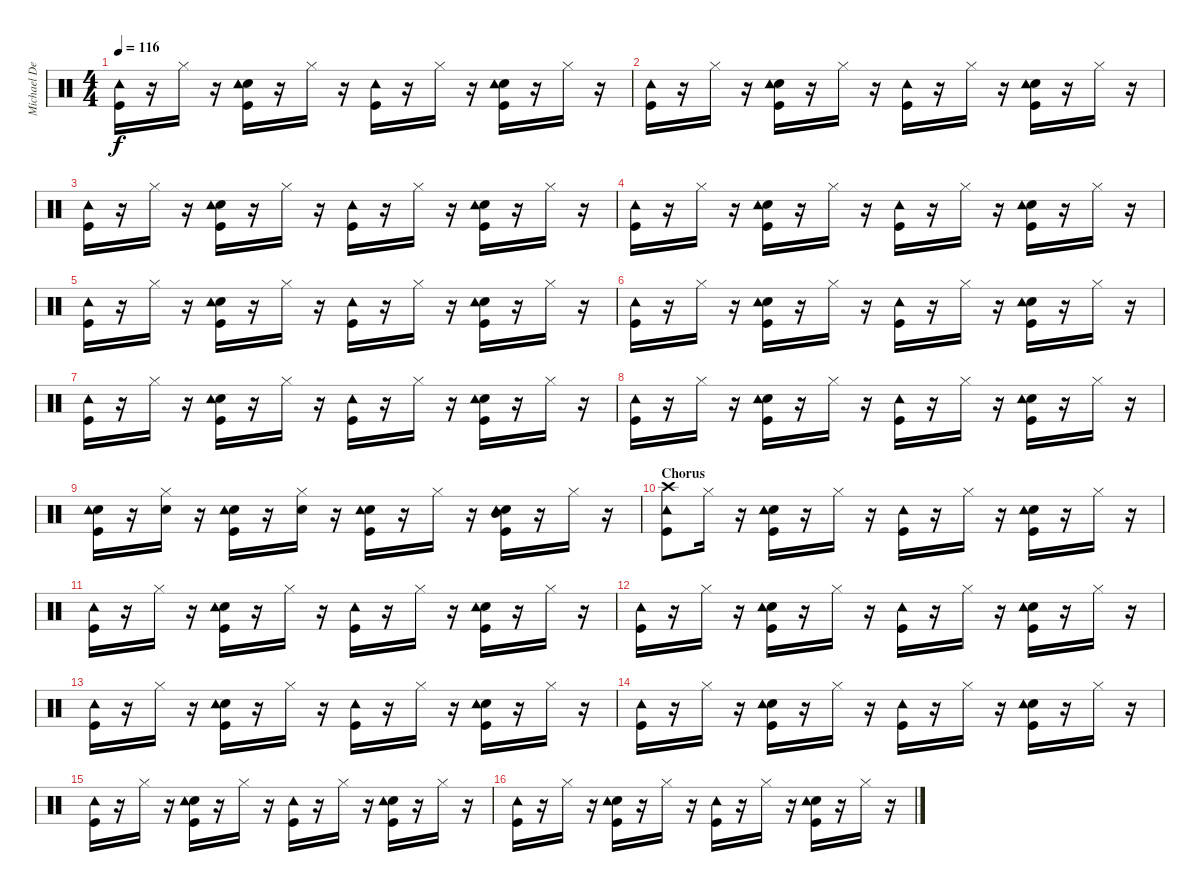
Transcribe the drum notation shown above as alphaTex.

\track ("Michael DeRosier" "Michael De") {instrument percussion}
\staff {score}
\articulation defaults
\ts (4 4)
\tempo 116
\clef neutral
\ks c
("Kick (hit)" "Tambourine (hit)").16{dy f} r.16 "Hi-Hat (closed)".16 r.16 ("Kick (hit)" "Electric Snare (hit)" "Tambourine (hit)").16 r.16 "Hi-Hat (closed)".16 r.16 ("Kick (hit)" "Tambourine (hit)").16 r.16 "Hi-Hat (closed)".16 r.16 ("Kick (hit)" "Electric Snare (hit)" "Tambourine (hit)").16 r.16 "Hi-Hat (closed)".16 r.16 |
("Kick (hit)" "Tambourine (hit)").16 r.16 "Hi-Hat (closed)".16 r.16 ("Kick (hit)" "Electric Snare (hit)" "Tambourine (hit)").16 r.16 "Hi-Hat (closed)".16 r.16 ("Kick (hit)" "Tambourine (hit)").16 r.16 "Hi-Hat (closed)".16 r.16 ("Kick (hit)" "Electric Snare (hit)" "Tambourine (hit)").16 r.16 "Hi-Hat (closed)".16 r.16 |
("Kick (hit)" "Tambourine (hit)").16 r.16 "Hi-Hat (closed)".16 r.16 ("Kick (hit)" "Electric Snare (hit)" "Tambourine (hit)").16 r.16 "Hi-Hat (closed)".16 r.16 ("Kick (hit)" "Tambourine (hit)").16 r.16 "Hi-Hat (closed)".16 r.16 ("Kick (hit)" "Electric Snare (hit)" "Tambourine (hit)").16 r.16 "Hi-Hat (closed)".16 r.16 |
("Kick (hit)" "Tambourine (hit)").16 r.16 "Hi-Hat (closed)".16 r.16 ("Kick (hit)" "Electric Snare (hit)" "Tambourine (hit)").16 r.16 "Hi-Hat (closed)".16 r.16 ("Kick (hit)" "Tambourine (hit)").16 r.16 "Hi-Hat (closed)".16 r.16 ("Kick (hit)" "Electric Snare (hit)" "Tambourine (hit)").16 r.16 "Hi-Hat (closed)".16 r.16 |
("Kick (hit)" "Tambourine (hit)").16 r.16 "Hi-Hat (closed)".16 r.16 ("Kick (hit)" "Electric Snare (hit)" "Tambourine (hit)").16 r.16 "Hi-Hat (closed)".16 r.16 ("Kick (hit)" "Tambourine (hit)").16 r.16 "Hi-Hat (closed)".16 r.16 ("Kick (hit)" "Electric Snare (hit)" "Tambourine (hit)").16 r.16 "Hi-Hat (closed)".16 r.16 |
("Kick (hit)" "Tambourine (hit)").16 r.16 "Hi-Hat (closed)".16 r.16 ("Kick (hit)" "Electric Snare (hit)" "Tambourine (hit)").16 r.16 "Hi-Hat (closed)".16 r.16 ("Kick (hit)" "Tambourine (hit)").16 r.16 "Hi-Hat (closed)".16 r.16 ("Kick (hit)" "Electric Snare (hit)" "Tambourine (hit)").16 r.16 "Hi-Hat (closed)".16 r.16 |
("Kick (hit)" "Tambourine (hit)").16 r.16 "Hi-Hat (closed)".16 r.16 ("Kick (hit)" "Electric Snare (hit)" "Tambourine (hit)").16 r.16 "Hi-Hat (closed)".16 r.16 ("Kick (hit)" "Tambourine (hit)").16 r.16 "Hi-Hat (closed)".16 r.16 ("Kick (hit)" "Electric Snare (hit)" "Tambourine (hit)").16 r.16 "Hi-Hat (closed)".16 r.16 |
("Kick (hit)" "Tambourine (hit)").16 r.16 "Hi-Hat (closed)".16 r.16 ("Kick (hit)" "Electric Snare (hit)" "Tambourine (hit)").16 r.16 "Hi-Hat (closed)".16 r.16 ("Kick (hit)" "Tambourine (hit)").16 r.16 "Hi-Hat (closed)".16 r.16 ("Kick (hit)" "Electric Snare (hit)" "Tambourine (hit)").16 r.16 "Hi-Hat (closed)".16 r.16 |
("Kick (hit)" "Electric Snare (hit)" "Tambourine (hit)").16 r.16 ("Electric Snare (hit)" "Hi-Hat (closed)").16 r.16 ("Kick (hit)" "Electric Snare (hit)" "Tambourine (hit)").16 r.16 ("Electric Snare (hit)" "Hi-Hat (closed)").16 r.16 ("Kick (hit)" "Electric Snare (hit)" "Tambourine (hit)").16 r.16 "Hi-Hat (closed)".16 r.16 ("Kick (hit)" "Electric Snare (hit)" "Mid Tom (hit)" "Tambourine (hit)").16 r.16 "Hi-Hat (closed)".16 r.16 |
\section ("" "Chorus")
("Kick (hit)" "Crash high (hit)" "Tambourine (hit)").8 "Hi-Hat (closed)".16 r.16 ("Kick (hit)" "Electric Snare (hit)" "Tambourine (hit)").16 r.16 "Hi-Hat (closed)".16 r.16 ("Kick (hit)" "Tambourine (hit)").16 r.16 "Hi-Hat (closed)".16 r.16 ("Kick (hit)" "Electric Snare (hit)" "Tambourine (hit)").16 r.16 "Hi-Hat (closed)".16 r.16 |
("Kick (hit)" "Tambourine (hit)").16 r.16 "Hi-Hat (closed)".16 r.16 ("Kick (hit)" "Electric Snare (hit)" "Tambourine (hit)").16 r.16 "Hi-Hat (closed)".16 r.16 ("Kick (hit)" "Tambourine (hit)").16 r.16 "Hi-Hat (closed)".16 r.16 ("Kick (hit)" "Electric Snare (hit)" "Tambourine (hit)").16 r.16 "Hi-Hat (closed)".16 r.16 |
("Kick (hit)" "Tambourine (hit)").16 r.16 "Hi-Hat (closed)".16 r.16 ("Kick (hit)" "Electric Snare (hit)" "Tambourine (hit)").16 r.16 "Hi-Hat (closed)".16 r.16 ("Kick (hit)" "Tambourine (hit)").16 r.16 "Hi-Hat (closed)".16 r.16 ("Kick (hit)" "Electric Snare (hit)" "Tambourine (hit)").16 r.16 "Hi-Hat (closed)".16 r.16 |
("Kick (hit)" "Tambourine (hit)").16 r.16 "Hi-Hat (closed)".16 r.16 ("Kick (hit)" "Electric Snare (hit)" "Tambourine (hit)").16 r.16 "Hi-Hat (closed)".16 r.16 ("Kick (hit)" "Tambourine (hit)").16 r.16 "Hi-Hat (closed)".16 r.16 ("Kick (hit)" "Electric Snare (hit)" "Tambourine (hit)").16 r.16 "Hi-Hat (closed)".16 r.16 |
("Kick (hit)" "Tambourine (hit)").16 r.16 "Hi-Hat (closed)".16 r.16 ("Kick (hit)" "Electric Snare (hit)" "Tambourine (hit)").16 r.16 "Hi-Hat (closed)".16 r.16 ("Kick (hit)" "Tambourine (hit)").16 r.16 "Hi-Hat (closed)".16 r.16 ("Kick (hit)" "Electric Snare (hit)" "Tambourine (hit)").16 r.16 "Hi-Hat (closed)".16 r.16 |
("Kick (hit)" "Tambourine (hit)").16 r.16 "Hi-Hat (closed)".16 r.16 ("Kick (hit)" "Electric Snare (hit)" "Tambourine (hit)").16 r.16 "Hi-Hat (closed)".16 r.16 ("Kick (hit)" "Tambourine (hit)").16 r.16 "Hi-Hat (closed)".16 r.16 ("Kick (hit)" "Electric Snare (hit)" "Tambourine (hit)").16 r.16 "Hi-Hat (closed)".16 r.16 |
("Kick (hit)" "Tambourine (hit)").16 r.16 "Hi-Hat (closed)".16 r.16 ("Kick (hit)" "Electric Snare (hit)" "Tambourine (hit)").16 r.16 "Hi-Hat (closed)".16 r.16 ("Kick (hit)" "Tambourine (hit)").16 r.16 "Hi-Hat (closed)".16 r.16 ("Kick (hit)" "Electric Snare (hit)" "Tambourine (hit)").16 r.16 "Hi-Hat (closed)".16 r.16
